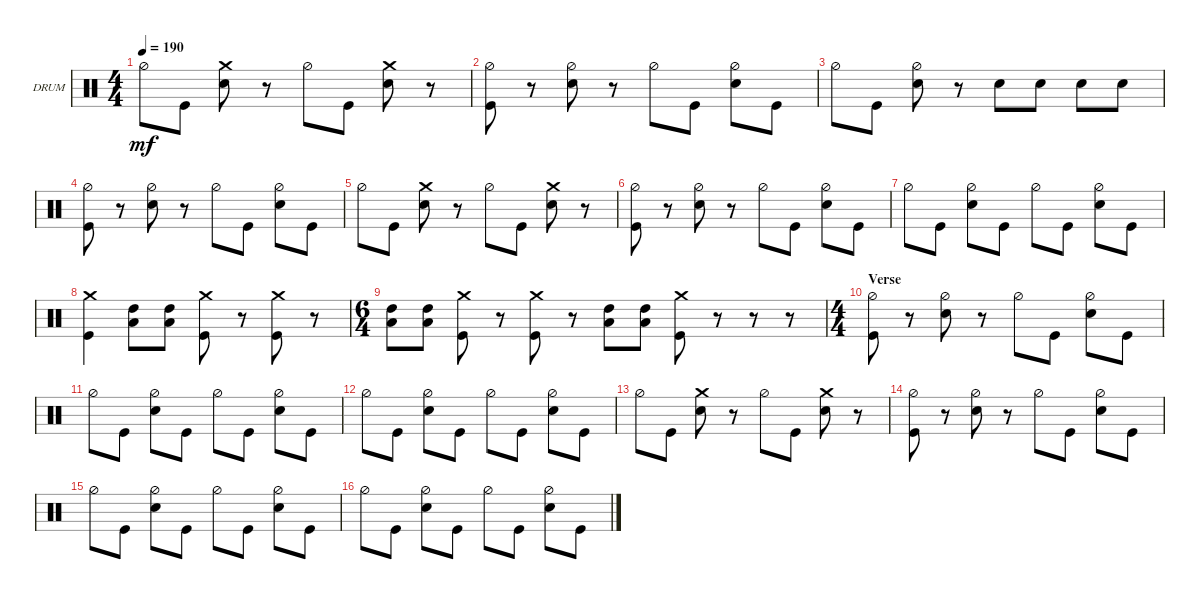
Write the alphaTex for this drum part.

\defaultSystemsLayout 4
\bracketExtendMode groupsimilarinstruments
\firstSystemTrackNameOrientation horizontal
\otherSystemsTrackNameOrientation horizontal
\track ("Drums" "DRUM") {instrument percussion}
\staff {score}
\articulation defaults
\ts (4 4)
\tempo 190
\clef neutral
\ks c "Hi-Hat (half)".8{dy mf} "Kick (hit)".8
("Snare (hit) 2" "Crash medium (hit)").8 r.8 "Hi-Hat (half)".8 "Kick (hit)".8 ("Snare (hit) 2" "Crash medium (hit)").8 r.8 |
("Kick (hit)" "Hi-Hat (half)").8 r.8 ("Snare (hit) 2" "Hi-Hat (half)").8 r.8 "Hi-Hat (half)".8 "Kick (hit)".8 ("Snare (hit) 2" "Hi-Hat (half)").8 "Kick (hit)".8 |
"Hi-Hat (half)".8 "Kick (hit)".8 ("Snare (hit) 2" "Hi-Hat (half)").8 r.8 "Snare (hit) 2".8 "Snare (hit) 2".8 "Snare (hit) 2".8 "Snare (hit) 2".8 |
("Kick (hit)" "Hi-Hat (half)").8 r.8 ("Snare (hit) 2" "Hi-Hat (half)").8 r.8 "Hi-Hat (half)".8 "Kick (hit)".8 ("Snare (hit) 2" "Hi-Hat (half)").8 "Kick (hit)".8 |
"Hi-Hat (half)".8 "Kick (hit)".8 ("Snare (hit) 2" "Crash medium (hit)").8 r.8 "Hi-Hat (half)".8 "Kick (hit)".8 ("Snare (hit) 2" "Crash medium (hit)").8 r.8 |
("Kick (hit)" "Hi-Hat (half)").8 r.8 ("Snare (hit) 2" "Hi-Hat (half)").8 r.8 "Hi-Hat (half)".8 "Kick (hit)".8 ("Snare (hit) 2" "Hi-Hat (half)").8 "Kick (hit)".8 |
"Hi-Hat (half)".8 "Kick (hit)".8 ("Snare (hit) 2" "Hi-Hat (half)").8 "Kick (hit)".8 "Hi-Hat (half)".8 "Kick (hit)".8 ("Snare (hit) 2" "Hi-Hat (half)").8 "Kick (hit)".8 |
("Kick (hit)" "Crash medium (hit)").4 ("High Tom (hit)" "Low Tom (hit)").8 ("High Tom (hit)" "Low Tom (hit)").8 ("Kick (hit)" "Crash medium (hit)").8 r.8 ("Kick (hit)" "Crash medium (hit)").8 r.8 |
\ts (6 4)
("High Tom (hit)" "Low Tom (hit)").8 ("High Tom (hit)" "Low Tom (hit)").8 ("Kick (hit)" "Crash medium (hit)").8 r.8 ("Kick (hit)" "Crash medium (hit)").8 r.8 ("High Tom (hit)" "Low Tom (hit)").8 ("High Tom (hit)" "Low Tom (hit)").8 ("Kick (hit)" "Crash medium (hit)").8 r.8 r.8 r.8 |
\ts (4 4)
\section ("" "Verse")
("Kick (hit)" "Hi-Hat (half)").8 r.8 ("Snare (hit) 2" "Hi-Hat (half)").8 r.8 "Hi-Hat (half)".8 "Kick (hit)".8 ("Snare (hit) 2" "Hi-Hat (half)").8 "Kick (hit)".8 |
"Hi-Hat (half)".8 "Kick (hit)".8 ("Snare (hit) 2" "Hi-Hat (half)").8 "Kick (hit)".8 "Hi-Hat (half)".8 "Kick (hit)".8 ("Snare (hit) 2" "Hi-Hat (half)").8 "Kick (hit)".8 |
"Hi-Hat (half)".8 "Kick (hit)".8 ("Snare (hit) 2" "Hi-Hat (half)").8 "Kick (hit)".8 "Hi-Hat (half)".8 "Kick (hit)".8 ("Snare (hit) 2" "Hi-Hat (half)").8 "Kick (hit)".8 |
"Hi-Hat (half)".8 "Kick (hit)".8 ("Snare (hit) 2" "Crash medium (hit)").8 r.8 "Hi-Hat (half)".8 "Kick (hit)".8 ("Snare (hit) 2" "Crash medium (hit)").8 r.8 |
("Kick (hit)" "Hi-Hat (half)").8 r.8 ("Snare (hit) 2" "Hi-Hat (half)").8 r.8 "Hi-Hat (half)".8 "Kick (hit)".8 ("Snare (hit) 2" "Hi-Hat (half)").8 "Kick (hit)".8 |
"Hi-Hat (half)".8 "Kick (hit)".8 ("Snare (hit) 2" "Hi-Hat (half)").8 "Kick (hit)".8 "Hi-Hat (half)".8 "Kick (hit)".8 ("Snare (hit) 2" "Hi-Hat (half)").8 "Kick (hit)".8 |
"Hi-Hat (half)".8 "Kick (hit)".8 ("Snare (hit) 2" "Hi-Hat (half)").8 "Kick (hit)".8 "Hi-Hat (half)".8 "Kick (hit)".8 ("Snare (hit) 2" "Hi-Hat (half)").8 "Kick (hit)".8
